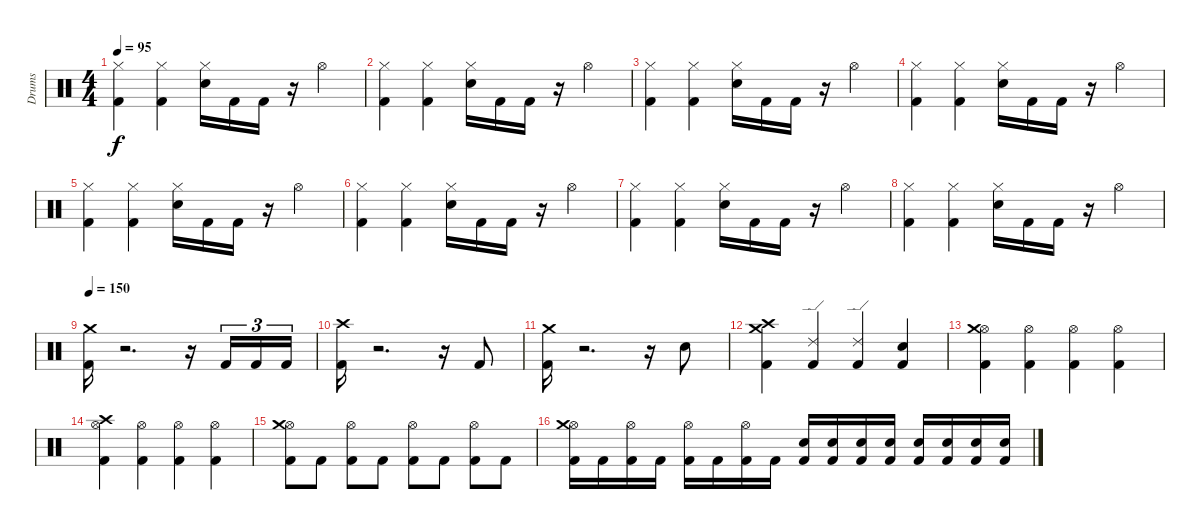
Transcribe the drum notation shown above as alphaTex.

\track ("Drums" "Drums") {instrument percussion}
\staff {score}
\articulation defaults
\ts (4 4)
\tempo 95
\clef neutral
\ks c
("Hi-Hat (closed)" "Kick (hit) 2").4{dy f} ("Hi-Hat (closed)" "Kick (hit) 2").4 ("Hi-Hat (closed)" "Snare (hit) 2").16 "Kick (hit) 2".16 "Kick (hit) 2".16 r.16 "Hi-Hat (open)".4 |
("Hi-Hat (closed)" "Kick (hit) 2").4 ("Hi-Hat (closed)" "Kick (hit) 2").4 ("Hi-Hat (closed)" "Snare (hit) 2").16 "Kick (hit) 2".16 "Kick (hit) 2".16 r.16 "Hi-Hat (open)".4 |
("Hi-Hat (closed)" "Kick (hit) 2").4 ("Hi-Hat (closed)" "Kick (hit) 2").4 ("Hi-Hat (closed)" "Snare (hit) 2").16 "Kick (hit) 2".16 "Kick (hit) 2".16 r.16 "Hi-Hat (open)".4 |
("Hi-Hat (closed)" "Kick (hit) 2").4 ("Hi-Hat (closed)" "Kick (hit) 2").4 ("Hi-Hat (closed)" "Snare (hit) 2").16 "Kick (hit) 2".16 "Kick (hit) 2".16 r.16 "Hi-Hat (open)".4 |
("Hi-Hat (closed)" "Kick (hit) 2").4 ("Hi-Hat (closed)" "Kick (hit) 2").4 ("Hi-Hat (closed)" "Snare (hit) 2").16 "Kick (hit) 2".16 "Kick (hit) 2".16 r.16 "Hi-Hat (open)".4 |
("Hi-Hat (closed)" "Kick (hit) 2").4 ("Hi-Hat (closed)" "Kick (hit) 2").4 ("Hi-Hat (closed)" "Snare (hit) 2").16 "Kick (hit) 2".16 "Kick (hit) 2".16 r.16 "Hi-Hat (open)".4 |
("Hi-Hat (closed)" "Kick (hit) 2").4 ("Hi-Hat (closed)" "Kick (hit) 2").4 ("Hi-Hat (closed)" "Snare (hit) 2").16 "Kick (hit) 2".16 "Kick (hit) 2".16 r.16 "Hi-Hat (open)".4 |
("Hi-Hat (closed)" "Kick (hit) 2").4 ("Hi-Hat (closed)" "Kick (hit) 2").4 ("Hi-Hat (closed)" "Snare (hit) 2").16 "Kick (hit) 2".16 "Kick (hit) 2".16 r.16 "Hi-Hat (open)".4 |
\tempo 155
\tempo 150
("Crash medium (hit)" "Kick (hit) 2").16 r.2{d} r.16 "Kick (hit) 2".16{tu (3 2)} "Kick (hit) 2".16{tu (3 2)} "Kick (hit) 2".16{tu (3 2)} |
("Crash high (hit)" "Kick (hit) 2").16 r.2{d} r.16 "Kick (hit) 2".8 |
("Crash medium (hit)" "Kick (hit) 2").16 r.2{d} r.16 "Snare (hit) 2".8 |
("Crash medium (hit)" "Kick (hit) 2" "Crash high (hit)").4 ("Ride (edge) 2" "Kick (hit) 2").4 ("Ride (edge) 2" "Kick (hit) 2").4 ("Snare (hit) 2" "Kick (hit) 2").4 |
("Hi-Hat (open)" "Kick (hit) 2" "Crash medium (hit)").4 ("Hi-Hat (open)" "Kick (hit) 2").4 ("Hi-Hat (open)" "Kick (hit) 2").4 ("Hi-Hat (open)" "Kick (hit) 2").4 |
("Hi-Hat (open)" "Kick (hit) 2" "Crash high (hit)").4 ("Hi-Hat (open)" "Kick (hit) 2").4 ("Hi-Hat (open)" "Kick (hit) 2").4 ("Hi-Hat (open)" "Kick (hit) 2").4 |
("Hi-Hat (open)" "Kick (hit) 2" "Crash medium (hit)").8 "Kick (hit) 2".8 ("Hi-Hat (open)" "Kick (hit) 2").8 "Kick (hit) 2".8 ("Hi-Hat (open)" "Kick (hit) 2").8 "Kick (hit) 2".8 ("Hi-Hat (open)" "Kick (hit) 2").8 "Kick (hit) 2".8 |
("Hi-Hat (open)" "Kick (hit) 2" "Crash medium (hit)").16 "Kick (hit) 2".16 ("Hi-Hat (open)" "Kick (hit) 2").16 "Kick (hit) 2".16 ("Hi-Hat (open)" "Kick (hit) 2").16 "Kick (hit) 2".16 ("Hi-Hat (open)" "Kick (hit) 2").16 "Kick (hit) 2".16 ("Snare (hit) 2" "Kick (hit) 2").16 ("Snare (hit) 2" "Kick (hit) 2").16 ("Snare (hit) 2" "Kick (hit) 2").16 ("Snare (hit) 2" "Kick (hit) 2").16 ("Snare (hit) 2" "Kick (hit) 2").16 ("Snare (hit) 2" "Kick (hit) 2").16 ("Snare (hit) 2" "Kick (hit) 2").16 ("Snare (hit) 2" "Kick (hit) 2").16
